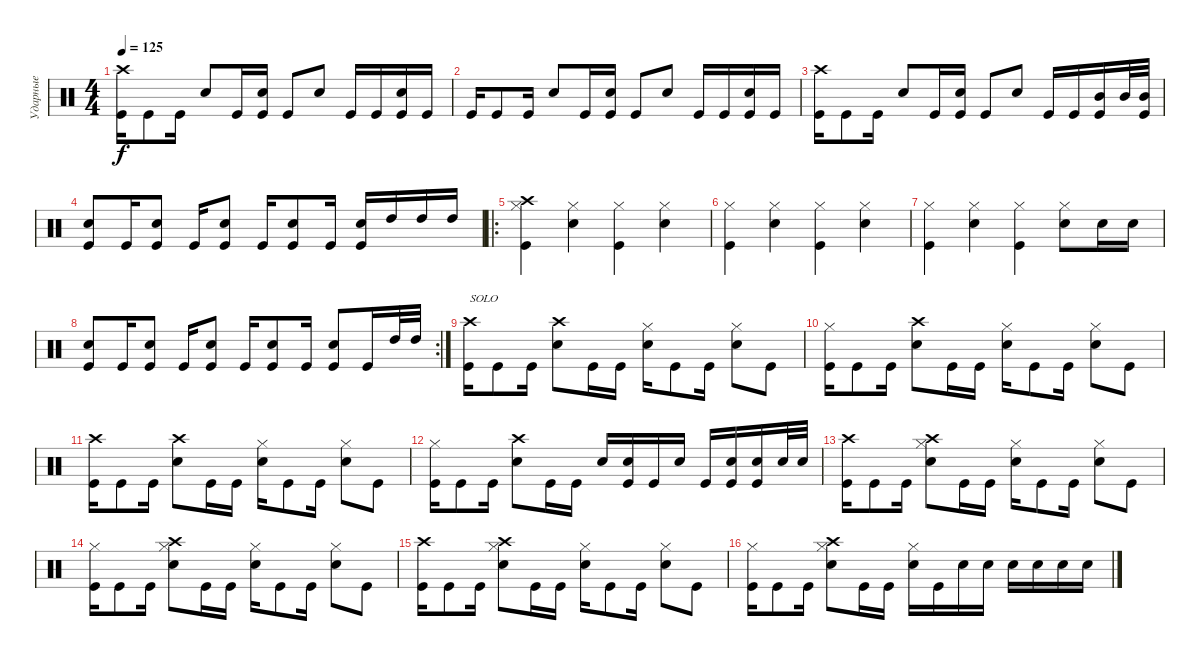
\track ("Ударные" "Ударные") {instrument percussion}
\staff {score}
\articulation defaults
\ts (4 4)
\tempo 125
\clef neutral
\ks c
("Crash high (hit)" "Kick (hit)").16{dy f} "Kick (hit)".8 "Kick (hit)".16 "Electric Snare (hit)".8 "Kick (hit)".16 ("Electric Snare (hit)" "Kick (hit)").16 "Kick (hit)".8 "Electric Snare (hit)".8 "Kick (hit)".16 "Kick (hit)".16 ("Electric Snare (hit)" "Kick (hit)").16 "Kick (hit)".16 |
"Kick (hit)".16 "Kick (hit)".8 "Kick (hit)".16 "Electric Snare (hit)".8 "Kick (hit)".16 ("Electric Snare (hit)" "Kick (hit)").16 "Kick (hit)".8 "Electric Snare (hit)".8 "Kick (hit)".16 "Kick (hit)".16 ("Electric Snare (hit)" "Kick (hit)").16 "Kick (hit)".16 |
("Crash high (hit)" "Kick (hit)").16 "Kick (hit)".8 "Kick (hit)".16 "Electric Snare (hit)".8 "Kick (hit)".16 ("Electric Snare (hit)" "Kick (hit)").16 "Kick (hit)".8 "Electric Snare (hit)".8 "Kick (hit)".16 "Kick (hit)".16 ("Mid Tom (hit)" "Kick (hit)").16 "Mid Tom (hit)".32 ("Mid Tom (hit)" "Kick (hit)").32 |
("Electric Snare (hit)" "Kick (hit)").8 "Kick (hit)".16 ("Electric Snare (hit)" "Kick (hit)").8 "Kick (hit)".16 ("Electric Snare (hit)" "Kick (hit)").8 "Kick (hit)".16 ("Electric Snare (hit)" "Kick (hit)").8 "Kick (hit)".16 ("Electric Snare (hit)" "Kick (hit)").16 "High Tom (hit)".16 "High Tom (hit)".16 "High Tom (hit)".16 |
\ro
("Crash high (hit)" "Hi-Hat (closed)" "Kick (hit)").4 ("Hi-Hat (closed)" "Electric Snare (hit)").4 ("Hi-Hat (closed)" "Kick (hit)").4 ("Hi-Hat (closed)" "Electric Snare (hit)").4 |
("Hi-Hat (closed)" "Kick (hit)").4 ("Hi-Hat (closed)" "Electric Snare (hit)").4 ("Hi-Hat (closed)" "Kick (hit)").4 ("Hi-Hat (closed)" "Electric Snare (hit)").4 |
("Hi-Hat (closed)" "Kick (hit)").4 ("Hi-Hat (closed)" "Electric Snare (hit)").4 ("Hi-Hat (closed)" "Kick (hit)").4 ("Hi-Hat (closed)" "Electric Snare (hit)").8 "Electric Snare (hit)".16 "Electric Snare (hit)".16 |
\rc 2
("Electric Snare (hit)" "Kick (hit)").8 "Kick (hit)".16 ("Electric Snare (hit)" "Kick (hit)").8 "Kick (hit)".16 ("Electric Snare (hit)" "Kick (hit)").8 "Kick (hit)".16 ("Electric Snare (hit)" "Kick (hit)").8 "Kick (hit)".16 ("Electric Snare (hit)" "Kick (hit)").8 "Kick (hit)".16 "High Tom (hit)".32 "High Tom (hit)".32 |
("Crash high (hit)" "Kick (hit)").16{txt "SOLO"} "Kick (hit)".8 "Kick (hit)".16 ("Crash high (hit)" "Electric Snare (hit)").8 "Kick (hit)".16 "Kick (hit)".16 ("Hi-Hat (closed)" "Electric Snare (hit)").16 "Kick (hit)".8 "Kick (hit)".16 ("Hi-Hat (closed)" "Electric Snare (hit)").8 "Kick (hit)".8 |
("Hi-Hat (closed)" "Kick (hit)").16 "Kick (hit)".8 "Kick (hit)".16 ("Crash high (hit)" "Electric Snare (hit)").8 "Kick (hit)".16 "Kick (hit)".16 ("Hi-Hat (closed)" "Electric Snare (hit)").16 "Kick (hit)".8 "Kick (hit)".16 ("Hi-Hat (closed)" "Electric Snare (hit)").8 "Kick (hit)".8 |
("Crash high (hit)" "Kick (hit)").16 "Kick (hit)".8 "Kick (hit)".16 ("Crash high (hit)" "Electric Snare (hit)").8 "Kick (hit)".16 "Kick (hit)".16 ("Hi-Hat (closed)" "Electric Snare (hit)").16 "Kick (hit)".8 "Kick (hit)".16 ("Hi-Hat (closed)" "Electric Snare (hit)").8 "Kick (hit)".8 |
("Hi-Hat (closed)" "Kick (hit)").16 "Kick (hit)".8 "Kick (hit)".16 ("Crash high (hit)" "Electric Snare (hit)").8 "Kick (hit)".16 "Kick (hit)".16 "Electric Snare (hit)".16 ("Electric Snare (hit)" "Kick (hit)").16 "Kick (hit)".16 "Electric Snare (hit)".16 "Kick (hit)".16 ("Electric Snare (hit)" "Kick (hit)").16 ("Electric Snare (hit)" "Kick (hit)").16 "Electric Snare (hit)".32 "Electric Snare (hit)".32 |
("Crash high (hit)" "Kick (hit)").16 "Kick (hit)".8 "Kick (hit)".16 ("Crash high (hit)" "Hi-Hat (closed)" "Electric Snare (hit)").8 "Kick (hit)".16 "Kick (hit)".16 ("Hi-Hat (closed)" "Electric Snare (hit)").16 "Kick (hit)".8 "Kick (hit)".16 ("Hi-Hat (closed)" "Electric Snare (hit)").8 "Kick (hit)".8 |
("Hi-Hat (closed)" "Kick (hit)").16 "Kick (hit)".8 "Kick (hit)".16 ("Hi-Hat (closed)" "Crash high (hit)" "Electric Snare (hit)").8 "Kick (hit)".16 "Kick (hit)".16 ("Hi-Hat (closed)" "Electric Snare (hit)").16 "Kick (hit)".8 "Kick (hit)".16 ("Hi-Hat (closed)" "Electric Snare (hit)").8 "Kick (hit)".8 |
("Crash high (hit)" "Kick (hit)").16 "Kick (hit)".8 "Kick (hit)".16 ("Hi-Hat (closed)" "Crash high (hit)" "Electric Snare (hit)").8 "Kick (hit)".16 "Kick (hit)".16 ("Hi-Hat (closed)" "Electric Snare (hit)").16 "Kick (hit)".8 "Kick (hit)".16 ("Hi-Hat (closed)" "Electric Snare (hit)").8 "Kick (hit)".8 |
("Hi-Hat (closed)" "Kick (hit)").16 "Kick (hit)".8 "Kick (hit)".16 ("Hi-Hat (closed)" "Crash high (hit)" "Electric Snare (hit)").8 "Kick (hit)".16 "Kick (hit)".16 ("Hi-Hat (closed)" "Electric Snare (hit)").16 "Kick (hit)".16 "Electric Snare (hit)".16 "Electric Snare (hit)".16 "Electric Snare (hit)".16 "Electric Snare (hit)".16 "Electric Snare (hit)".16 "Electric Snare (hit)".16
